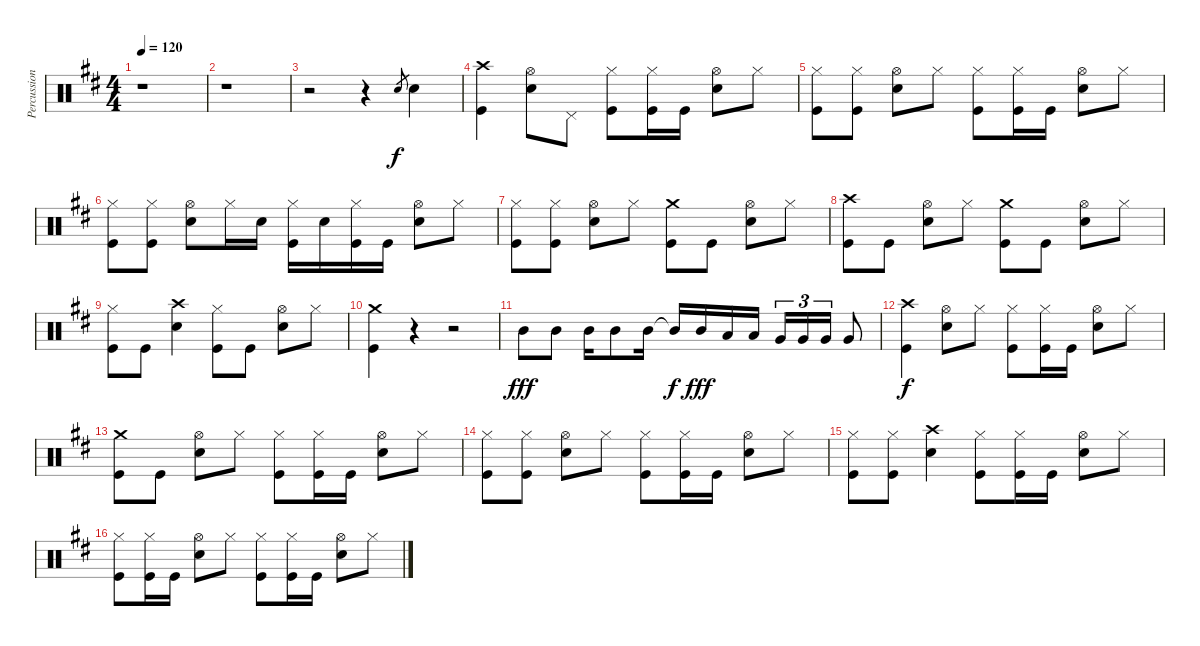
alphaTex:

\track ("Percussion" "Percussion") {instrument percussion}
\staff {score}
\articulation defaults
\ts (4 4)
\tempo 120
\clef neutral
\ks d
r.1{dy f} |
r.1 |
r.2 r.4 "Snare (hit) 2".8{gr} "Snare (hit) 2".4 |
("Crash high (hit)" "Kick (hit)").4 ("Hi-Hat (open)" "Snare (hit) 2").8 "Pedal Hi-Hat (hit)".8 ("Hi-Hat (closed)" "Kick (hit)").8 ("Hi-Hat (closed)" "Kick (hit)").16 "Kick (hit)".16 ("Hi-Hat (open)" "Snare (hit) 2").8 "Hi-Hat (closed)".8 |
("Hi-Hat (closed)" "Kick (hit)").8 ("Hi-Hat (closed)" "Kick (hit)").8 ("Hi-Hat (open)" "Snare (hit) 2").8 "Hi-Hat (closed)".8 ("Hi-Hat (closed)" "Kick (hit)").8 ("Hi-Hat (closed)" "Kick (hit)").16 "Kick (hit)".16 ("Hi-Hat (open)" "Snare (hit) 2").8 "Hi-Hat (closed)".8 |
("Hi-Hat (closed)" "Kick (hit)").8 ("Hi-Hat (closed)" "Kick (hit)").8 ("Hi-Hat (open)" "Snare (hit) 2").8 "Hi-Hat (closed)".16 "Snare (hit) 2".16 ("Hi-Hat (closed)" "Kick (hit)").16 "Snare (hit) 2".16 ("Hi-Hat (closed)" "Kick (hit)").16 "Kick (hit)".16 ("Hi-Hat (open)" "Snare (hit) 2").8 "Hi-Hat (closed)".8 |
("Hi-Hat (closed)" "Kick (hit)").8 ("Hi-Hat (closed)" "Kick (hit)").8 ("Hi-Hat (open)" "Snare (hit) 2").8 "Hi-Hat (closed)".8 ("Crash medium (hit)" "Kick (hit)").8 "Kick (hit)".8 ("Hi-Hat (open)" "Snare (hit) 2").8 "Hi-Hat (closed)".8 |
("Crash high (hit)" "Kick (hit)").8 "Kick (hit)".8 ("Hi-Hat (open)" "Snare (hit) 2").8 "Hi-Hat (closed)".8 ("Crash medium (hit)" "Kick (hit)").8 "Kick (hit)".8 ("Hi-Hat (open)" "Snare (hit) 2").8 "Hi-Hat (closed)".8 |
("Hi-Hat (closed)" "Kick (hit)").8 "Kick (hit)".8 ("Crash high (hit)" "Snare (hit) 2").4 ("Hi-Hat (closed)" "Kick (hit)").8 "Kick (hit)".8 ("Hi-Hat (open)" "Snare (hit) 2").8 "Hi-Hat (closed)".8 |
("Crash medium (hit)" "Kick (hit)").4 r.4 r.2 |
"Mid Tom (hit)".8{dy fff} "Mid Tom (hit)".8 "Mid Tom (hit)".16 "Mid Tom (hit)".8 "Mid Tom (hit)".16 "Mid Tom (hit)"{t}.16{dy f} "Mid Tom (hit)".16{dy fff} "Low Tom (hit)".16 "Low Tom (hit)".16 "Very Low Tom (hit)".16{tu (3 2)} "Very Low Tom (hit)".16{tu (3 2)} "Very Low Tom (hit)".16{tu (3 2)} "Very Low Tom (hit)".8 |
("Crash high (hit)" "Kick (hit)").4{dy f} ("Hi-Hat (open)" "Snare (hit) 2").8 "Hi-Hat (closed)".8 ("Hi-Hat (closed)" "Kick (hit)").8 ("Hi-Hat (closed)" "Kick (hit)").16 "Kick (hit)".16 ("Hi-Hat (open)" "Snare (hit) 2").8 "Hi-Hat (closed)".8 |
("Crash medium (hit)" "Kick (hit)").8 "Kick (hit)".8 ("Hi-Hat (open)" "Snare (hit) 2").8 "Hi-Hat (closed)".8 ("Hi-Hat (closed)" "Kick (hit)").8 ("Hi-Hat (closed)" "Kick (hit)").16 "Kick (hit)".16 ("Hi-Hat (open)" "Snare (hit) 2").8 "Hi-Hat (closed)".8 |
("Hi-Hat (closed)" "Kick (hit)").8 ("Hi-Hat (closed)" "Kick (hit)").8 ("Hi-Hat (open)" "Snare (hit) 2").8 "Hi-Hat (closed)".8 ("Hi-Hat (closed)" "Kick (hit)").8 ("Hi-Hat (closed)" "Kick (hit)").16 "Kick (hit)".16 ("Hi-Hat (open)" "Snare (hit) 2").8 "Hi-Hat (closed)".8 |
("Hi-Hat (closed)" "Kick (hit)").8 ("Hi-Hat (closed)" "Kick (hit)").8 ("Crash high (hit)" "Snare (hit) 2").4 ("Hi-Hat (closed)" "Kick (hit)").8 ("Hi-Hat (closed)" "Kick (hit)").16 "Kick (hit)".16 ("Hi-Hat (open)" "Snare (hit) 2").8 "Hi-Hat (closed)".8 |
("Hi-Hat (closed)" "Kick (hit)").8 ("Hi-Hat (closed)" "Kick (hit)").16 "Kick (hit)".16 ("Hi-Hat (open)" "Snare (hit) 2").8 "Hi-Hat (closed)".8 ("Hi-Hat (closed)" "Kick (hit)").8 ("Hi-Hat (closed)" "Kick (hit)").16 "Kick (hit)".16 ("Hi-Hat (open)" "Snare (hit) 2").8 "Hi-Hat (closed)".8
